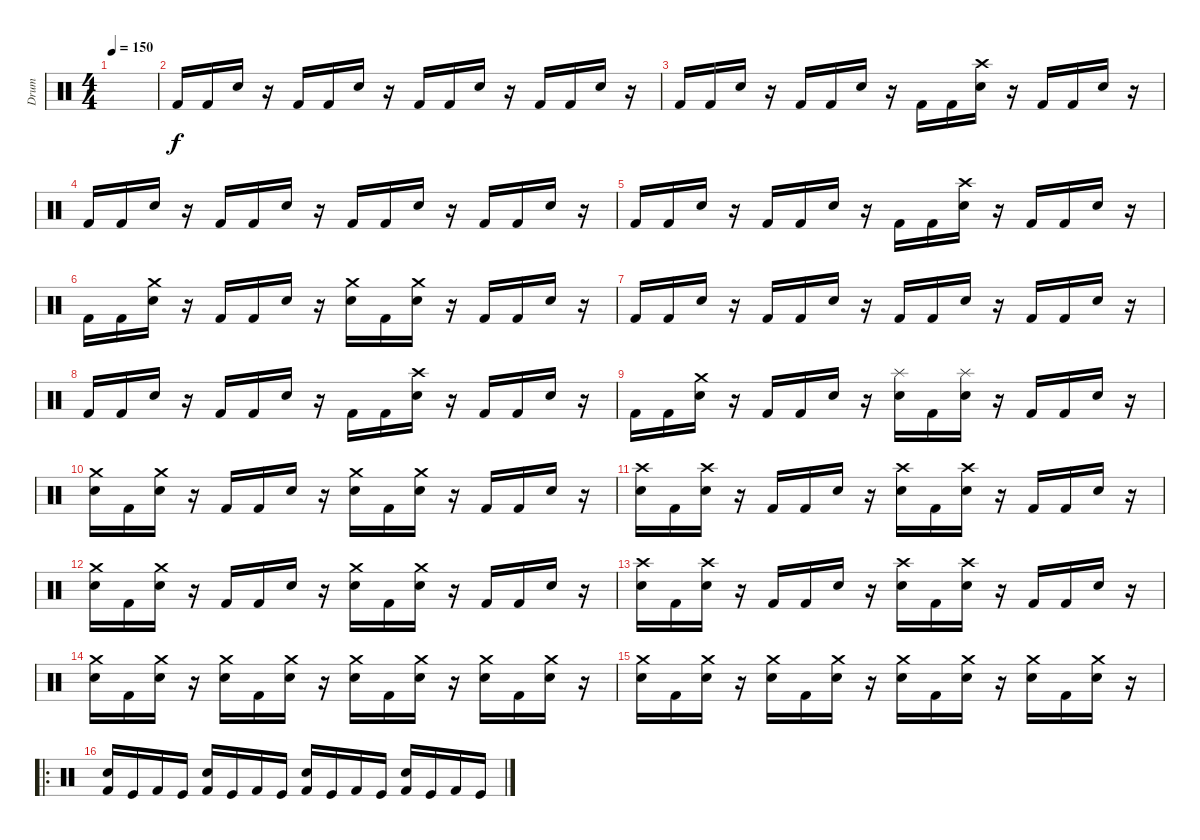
\track ("Drum" "Drum") {instrument percussion}
\staff {score}
\articulation defaults
\ts (4 4)
\tempo 150
\clef neutral
\ks c
|
"Kick (hit) 2".16 "Kick (hit) 2".16 "Snare (hit) 2".16 r.16 "Kick (hit) 2".16 "Kick (hit) 2".16 "Snare (hit) 2".16 r.16 "Kick (hit) 2".16 "Kick (hit) 2".16 "Snare (hit) 2".16 r.16 "Kick (hit) 2".16 "Kick (hit) 2".16 "Snare (hit) 2".16 r.16 |
"Kick (hit) 2".16 "Kick (hit) 2".16 "Snare (hit) 2".16 r.16 "Kick (hit) 2".16 "Kick (hit) 2".16 "Snare (hit) 2".16 r.16 "Kick (hit) 2".16 "Kick (hit) 2".16 ("Electric Snare (hit)" "Crash high (hit)").16 r.16 "Kick (hit) 2".16 "Kick (hit) 2".16 "Snare (hit) 2".16 r.16 |
"Kick (hit) 2".16 "Kick (hit) 2".16 "Snare (hit) 2".16 r.16 "Kick (hit) 2".16 "Kick (hit) 2".16 "Snare (hit) 2".16 r.16 "Kick (hit) 2".16 "Kick (hit) 2".16 "Snare (hit) 2".16 r.16 "Kick (hit) 2".16 "Kick (hit) 2".16 "Snare (hit) 2".16 r.16 |
"Kick (hit) 2".16 "Kick (hit) 2".16 "Snare (hit) 2".16 r.16 "Kick (hit) 2".16 "Kick (hit) 2".16 "Snare (hit) 2".16 r.16 "Kick (hit) 2".16 "Kick (hit) 2".16 ("Electric Snare (hit)" "Crash high (hit)").16 r.16 "Kick (hit) 2".16 "Kick (hit) 2".16 "Snare (hit) 2".16 r.16 |
"Kick (hit) 2".16 "Kick (hit) 2".16 ("Crash medium (hit)" "Electric Snare (hit)").16 r.16 "Kick (hit) 2".16 "Kick (hit) 2".16 "Snare (hit) 2".16 r.16 ("Crash medium (hit)" "Electric Snare (hit)").16 "Kick (hit) 2".16 ("Crash medium (hit)" "Electric Snare (hit)").16 r.16 "Kick (hit) 2".16 "Kick (hit) 2".16 "Snare (hit) 2".16 r.16 |
"Kick (hit) 2".16 "Kick (hit) 2".16 "Snare (hit) 2".16 r.16 "Kick (hit) 2".16 "Kick (hit) 2".16 "Snare (hit) 2".16 r.16 "Kick (hit) 2".16 "Kick (hit) 2".16 "Snare (hit) 2".16 r.16 "Kick (hit) 2".16 "Kick (hit) 2".16 "Snare (hit) 2".16 r.16 |
"Kick (hit) 2".16 "Kick (hit) 2".16 "Snare (hit) 2".16 r.16 "Kick (hit) 2".16 "Kick (hit) 2".16 "Snare (hit) 2".16 r.16 "Kick (hit) 2".16 "Kick (hit) 2".16 ("Electric Snare (hit)" "Crash high (hit)").16 r.16 "Kick (hit) 2".16 "Kick (hit) 2".16 "Snare (hit) 2".16 r.16 |
"Kick (hit) 2".16 "Kick (hit) 2".16 ("Crash medium (hit)" "Electric Snare (hit)").16 r.16 "Kick (hit) 2".16 "Kick (hit) 2".16 "Snare (hit) 2".16 r.16 ("Splash (hit)" "Electric Snare (hit)").16 "Kick (hit) 2".16 ("Splash (hit)" "Electric Snare (hit)").16 r.16 "Kick (hit) 2".16 "Kick (hit) 2".16 "Snare (hit) 2".16 r.16 |
("Electric Snare (hit)" "Crash medium (hit)").16 "Kick (hit) 2".16 ("Crash medium (hit)" "Electric Snare (hit)").16 r.16 "Kick (hit) 2".16 "Kick (hit) 2".16 "Snare (hit) 2".16 r.16 ("Crash medium (hit)" "Electric Snare (hit)").16 "Kick (hit) 2".16 ("Crash medium (hit)" "Electric Snare (hit)").16 r.16 "Kick (hit) 2".16 "Kick (hit) 2".16 "Snare (hit) 2".16 r.16 |
("Crash high (hit)" "Electric Snare (hit)").16 "Kick (hit) 2".16 ("Crash high (hit)" "Electric Snare (hit)").16 r.16 "Kick (hit) 2".16 "Kick (hit) 2".16 "Snare (hit) 2".16 r.16 ("Crash high (hit)" "Electric Snare (hit)").16 "Kick (hit) 2".16 ("Crash high (hit)" "Electric Snare (hit)").16 r.16 "Kick (hit) 2".16 "Kick (hit) 2".16 "Snare (hit) 2".16 r.16 |
("Electric Snare (hit)" "Crash medium (hit)").16 "Kick (hit) 2".16 ("Crash medium (hit)" "Electric Snare (hit)").16 r.16 "Kick (hit) 2".16 "Kick (hit) 2".16 "Snare (hit) 2".16 r.16 ("Crash medium (hit)" "Electric Snare (hit)").16 "Kick (hit) 2".16 ("Crash medium (hit)" "Electric Snare (hit)").16 r.16 "Kick (hit) 2".16 "Kick (hit) 2".16 "Snare (hit) 2".16 r.16 |
("Crash high (hit)" "Electric Snare (hit)").16 "Kick (hit) 2".16 ("Crash high (hit)" "Electric Snare (hit)").16 r.16 "Kick (hit) 2".16 "Kick (hit) 2".16 "Snare (hit) 2".16 r.16 ("Crash high (hit)" "Electric Snare (hit)").16 "Kick (hit) 2".16 ("Crash high (hit)" "Electric Snare (hit)").16 r.16 "Kick (hit) 2".16 "Kick (hit) 2".16 "Snare (hit) 2".16 r.16 |
("Electric Snare (hit)" "Crash medium (hit)").16 "Kick (hit) 2".16 ("Crash medium (hit)" "Electric Snare (hit)").16 r.16 ("Electric Snare (hit)" "Crash medium (hit)").16 "Kick (hit) 2".16 ("Electric Snare (hit)" "Crash medium (hit)").16 r.16 ("Crash medium (hit)" "Electric Snare (hit)").16 "Kick (hit) 2".16 ("Crash medium (hit)" "Electric Snare (hit)").16 r.16 ("Electric Snare (hit)" "Crash medium (hit)").16 "Kick (hit) 2".16 ("Electric Snare (hit)" "Crash medium (hit)").16 r.16 |
("Electric Snare (hit)" "Crash medium (hit)").16 "Kick (hit) 2".16 ("Crash medium (hit)" "Electric Snare (hit)").16 r.16 ("Electric Snare (hit)" "Crash medium (hit)").16 "Kick (hit) 2".16 ("Electric Snare (hit)" "Crash medium (hit)").16 r.16 ("Crash medium (hit)" "Electric Snare (hit)").16 "Kick (hit) 2".16 ("Crash medium (hit)" "Electric Snare (hit)").16 r.16 ("Electric Snare (hit)" "Crash medium (hit)").16 "Kick (hit) 2".16 ("Electric Snare (hit)" "Crash medium (hit)").16 r.16 |
\ro
("Kick (hit) 2" "Snare (hit) 2").16 "Kick (hit)".16 "Kick (hit) 2".16 "Kick (hit)".16 ("Kick (hit) 2" "Snare (hit) 2").16 "Kick (hit)".16 "Kick (hit) 2".16 "Kick (hit)".16 ("Kick (hit) 2" "Snare (hit) 2").16 "Kick (hit)".16 "Kick (hit) 2".16 "Kick (hit)".16 ("Kick (hit) 2" "Snare (hit) 2").16 "Kick (hit)".16 "Kick (hit) 2".16 "Kick (hit)".16
